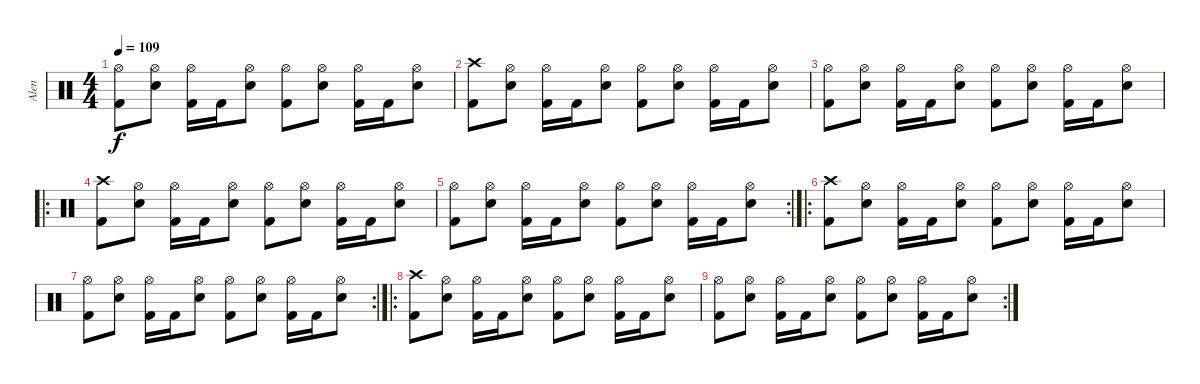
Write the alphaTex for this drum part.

\track ("Alen" "Alen") {instrument percussion}
\staff {score}
\articulation defaults
\ts (4 4)
\tempo 109
\clef neutral
\ks c
("Hi-Hat (open)" "Kick (hit) 2").8{dy f} ("Hi-Hat (open)" "Electric Snare (hit)").8 ("Hi-Hat (open)" "Kick (hit) 2").16 "Kick (hit) 2".16 ("Hi-Hat (open)" "Electric Snare (hit)").8 ("Hi-Hat (open)" "Kick (hit) 2").8 ("Hi-Hat (open)" "Electric Snare (hit)").8 ("Hi-Hat (open)" "Kick (hit) 2").16 "Kick (hit) 2".16 ("Hi-Hat (open)" "Electric Snare (hit)").8 |
("Crash high (hit)" "Kick (hit) 2").8 ("Hi-Hat (open)" "Electric Snare (hit)").8 ("Hi-Hat (open)" "Kick (hit) 2").16 "Kick (hit) 2".16 ("Hi-Hat (open)" "Electric Snare (hit)").8 ("Hi-Hat (open)" "Kick (hit) 2").8 ("Hi-Hat (open)" "Electric Snare (hit)").8 ("Hi-Hat (open)" "Kick (hit) 2").16 "Kick (hit) 2".16 ("Hi-Hat (open)" "Electric Snare (hit)").8 |
("Hi-Hat (open)" "Kick (hit) 2").8 ("Hi-Hat (open)" "Electric Snare (hit)").8 ("Hi-Hat (open)" "Kick (hit) 2").16 "Kick (hit) 2".16 ("Hi-Hat (open)" "Electric Snare (hit)").8 ("Hi-Hat (open)" "Kick (hit) 2").8 ("Hi-Hat (open)" "Electric Snare (hit)").8 ("Hi-Hat (open)" "Kick (hit) 2").16 "Kick (hit) 2".16 ("Hi-Hat (open)" "Electric Snare (hit)").8 |
\ro
("Crash high (hit)" "Kick (hit) 2").8 ("Hi-Hat (open)" "Electric Snare (hit)").8 ("Hi-Hat (open)" "Kick (hit) 2").16 "Kick (hit) 2".16 ("Hi-Hat (open)" "Electric Snare (hit)").8 ("Hi-Hat (open)" "Kick (hit) 2").8 ("Hi-Hat (open)" "Electric Snare (hit)").8 ("Hi-Hat (open)" "Kick (hit) 2").16 "Kick (hit) 2".16 ("Hi-Hat (open)" "Electric Snare (hit)").8 |
\rc 2
("Hi-Hat (open)" "Kick (hit) 2").8 ("Hi-Hat (open)" "Electric Snare (hit)").8 ("Hi-Hat (open)" "Kick (hit) 2").16 "Kick (hit) 2".16 ("Hi-Hat (open)" "Electric Snare (hit)").8 ("Hi-Hat (open)" "Kick (hit) 2").8 ("Hi-Hat (open)" "Electric Snare (hit)").8 ("Hi-Hat (open)" "Kick (hit) 2").16 "Kick (hit) 2".16 ("Hi-Hat (open)" "Electric Snare (hit)").8 |
\ro
("Crash high (hit)" "Kick (hit) 2").8{volume 7} ("Hi-Hat (open)" "Electric Snare (hit)").8 ("Hi-Hat (open)" "Kick (hit) 2").16 "Kick (hit) 2".16 ("Hi-Hat (open)" "Electric Snare (hit)").8 ("Hi-Hat (open)" "Kick (hit) 2").8 ("Hi-Hat (open)" "Electric Snare (hit)").8 ("Hi-Hat (open)" "Kick (hit) 2").16 "Kick (hit) 2".16 ("Hi-Hat (open)" "Electric Snare (hit)").8 |
\rc 2
("Hi-Hat (open)" "Kick (hit) 2").8 ("Hi-Hat (open)" "Electric Snare (hit)").8 ("Hi-Hat (open)" "Kick (hit) 2").16 "Kick (hit) 2".16 ("Hi-Hat (open)" "Electric Snare (hit)").8 ("Hi-Hat (open)" "Kick (hit) 2").8 ("Hi-Hat (open)" "Electric Snare (hit)").8 ("Hi-Hat (open)" "Kick (hit) 2").16 "Kick (hit) 2".16 ("Hi-Hat (open)" "Electric Snare (hit)").8 |
\ro
("Crash high (hit)" "Kick (hit) 2").8{volume 3} ("Hi-Hat (open)" "Electric Snare (hit)").8 ("Hi-Hat (open)" "Kick (hit) 2").16 "Kick (hit) 2".16 ("Hi-Hat (open)" "Electric Snare (hit)").8 ("Hi-Hat (open)" "Kick (hit) 2").8 ("Hi-Hat (open)" "Electric Snare (hit)").8 ("Hi-Hat (open)" "Kick (hit) 2").16 "Kick (hit) 2".16 ("Hi-Hat (open)" "Electric Snare (hit)").8 |
\rc 2
("Hi-Hat (open)" "Kick (hit) 2").8 ("Hi-Hat (open)" "Electric Snare (hit)").8 ("Hi-Hat (open)" "Kick (hit) 2").16 "Kick (hit) 2".16 ("Hi-Hat (open)" "Electric Snare (hit)").8 ("Hi-Hat (open)" "Kick (hit) 2").8 ("Hi-Hat (open)" "Electric Snare (hit)").8 ("Hi-Hat (open)" "Kick (hit) 2").16 "Kick (hit) 2".16 ("Hi-Hat (open)" "Electric Snare (hit)").8
